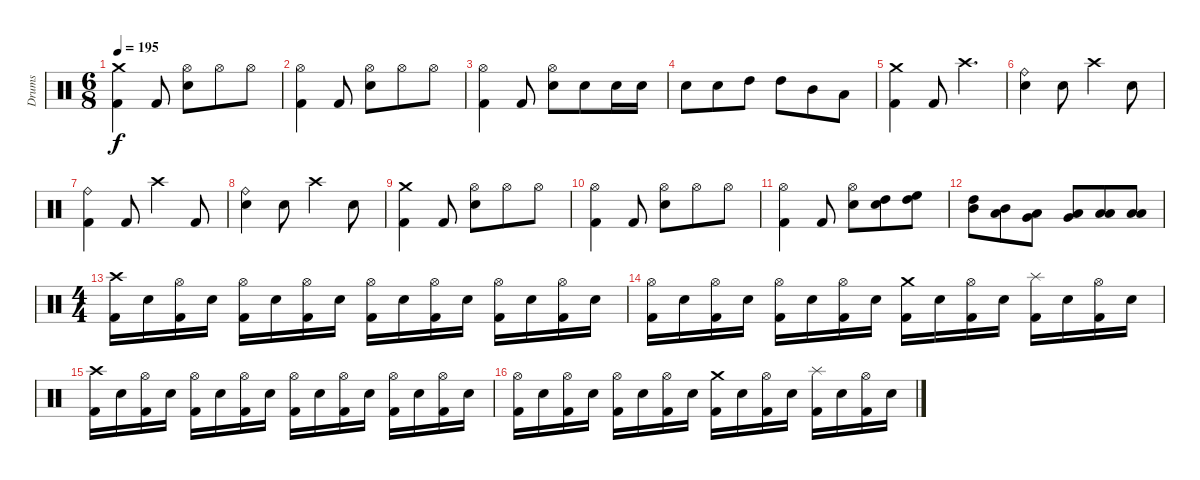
\track ("Drums" "Drums") {instrument percussion}
\staff {score}
\articulation defaults
\ts (6 8)
\tempo 195
\clef neutral
\ks c
("Crash medium (hit)" "Kick (hit) 2").4{dy f} "Kick (hit) 2".8 ("Hi-Hat (open)" "Electric Snare (hit)").8 "Hi-Hat (open)".8 "Hi-Hat (open)".8 |
("Hi-Hat (open)" "Kick (hit) 2").4 "Kick (hit) 2".8 ("Hi-Hat (open)" "Electric Snare (hit)").8 "Hi-Hat (open)".8 "Hi-Hat (open)".8 |
("Hi-Hat (open)" "Kick (hit) 2").4 "Kick (hit) 2".8 ("Hi-Hat (open)" "Electric Snare (hit)").8 "Electric Snare (hit)".8 "Electric Snare (hit)".16 "Electric Snare (hit)".16 |
"Electric Snare (hit)".8 "Electric Snare (hit)".8 "High Tom (hit)".8 "High Tom (hit)".8 "Mid Tom (hit)".8 "Low Tom (hit)".8 |
("Crash medium (hit)" "Kick (hit) 2").4 "Kick (hit) 2".8 "Crash high (hit)".4{d} |
("Ride (bell)" "Electric Snare (hit)").4 "Electric Snare (hit)".8 "Crash high (hit)".4 "Electric Snare (hit)".8 |
("Ride (bell)" "Kick (hit) 2").4 "Kick (hit) 2".8 "Crash high (hit)".4 "Kick (hit) 2".8 |
("Ride (bell)" "Electric Snare (hit)").4 "Electric Snare (hit)".8 "Crash high (hit)".4 "Electric Snare (hit)".8 |
("Crash medium (hit)" "Kick (hit) 2").4 "Kick (hit) 2".8 ("Hi-Hat (open)" "Electric Snare (hit)").8 "Hi-Hat (open)".8 "Hi-Hat (open)".8 |
("Hi-Hat (open)" "Kick (hit) 2").4 "Kick (hit) 2".8 ("Hi-Hat (open)" "Electric Snare (hit)").8 "Hi-Hat (open)".8 "Hi-Hat (open)".8 |
("Hi-Hat (open)" "Kick (hit) 2").4 "Kick (hit) 2".8 ("Hi-Hat (open)" "Electric Snare (hit)").8 ("Electric Snare (hit)" "High Tom (hit)").8 ("High Floor Tom (hit)" "High Tom (hit)").8 |
("High Tom (hit)" "Mid Tom (hit)").8 ("Mid Tom (hit)" "Low Tom (hit)").8 ("Low Tom (hit)" "Very Low Tom (hit)").8 ("Very Low Tom (hit)" "Low Floor Tom (hit)").8 ("Low Floor Tom (hit)" "Low Floor Tom (hit)").8 ("Low Floor Tom (hit)" "Low Floor Tom (hit)").8 |
\ts (4 4)
("Crash high (hit)" "Kick (hit) 2").16 "Electric Snare (hit)".16 ("Hi-Hat (open)" "Kick (hit) 2").16 "Electric Snare (hit)".16 ("Hi-Hat (open)" "Kick (hit) 2").16 "Electric Snare (hit)".16 ("Hi-Hat (open)" "Kick (hit) 2").16 "Electric Snare (hit)".16 ("Hi-Hat (open)" "Kick (hit) 2").16 "Electric Snare (hit)".16 ("Hi-Hat (open)" "Kick (hit) 2").16 "Electric Snare (hit)".16 ("Hi-Hat (open)" "Kick (hit) 2").16 "Electric Snare (hit)".16 ("Hi-Hat (open)" "Kick (hit) 2").16 "Electric Snare (hit)".16 |
("Hi-Hat (open)" "Kick (hit) 2").16 "Electric Snare (hit)".16 ("Hi-Hat (open)" "Kick (hit) 2").16 "Electric Snare (hit)".16 ("Hi-Hat (open)" "Kick (hit) 2").16 "Electric Snare (hit)".16 ("Hi-Hat (open)" "Kick (hit) 2").16 "Electric Snare (hit)".16 ("Crash medium (hit)" "Kick (hit) 2").16 "Electric Snare (hit)".16 ("Hi-Hat (open)" "Kick (hit) 2").16 "Electric Snare (hit)".16 ("Splash (hit)" "Kick (hit) 2").16 "Electric Snare (hit)".16 ("Hi-Hat (open)" "Kick (hit) 2").16 "Electric Snare (hit)".16 |
("Crash high (hit)" "Kick (hit) 2").16 "Electric Snare (hit)".16 ("Hi-Hat (open)" "Kick (hit) 2").16 "Electric Snare (hit)".16 ("Hi-Hat (open)" "Kick (hit) 2").16 "Electric Snare (hit)".16 ("Hi-Hat (open)" "Kick (hit) 2").16 "Electric Snare (hit)".16 ("Hi-Hat (open)" "Kick (hit) 2").16 "Electric Snare (hit)".16 ("Hi-Hat (open)" "Kick (hit) 2").16 "Electric Snare (hit)".16 ("Hi-Hat (open)" "Kick (hit) 2").16 "Electric Snare (hit)".16 ("Hi-Hat (open)" "Kick (hit) 2").16 "Electric Snare (hit)".16 |
("Hi-Hat (open)" "Kick (hit) 2").16 "Electric Snare (hit)".16 ("Hi-Hat (open)" "Kick (hit) 2").16 "Electric Snare (hit)".16 ("Hi-Hat (open)" "Kick (hit) 2").16 "Electric Snare (hit)".16 ("Hi-Hat (open)" "Kick (hit) 2").16 "Electric Snare (hit)".16 ("Crash medium (hit)" "Kick (hit) 2").16 "Electric Snare (hit)".16 ("Hi-Hat (open)" "Kick (hit) 2").16 "Electric Snare (hit)".16 ("Splash (hit)" "Kick (hit) 2").16 "Electric Snare (hit)".16 ("Hi-Hat (open)" "Kick (hit) 2").16 "Electric Snare (hit)".16
